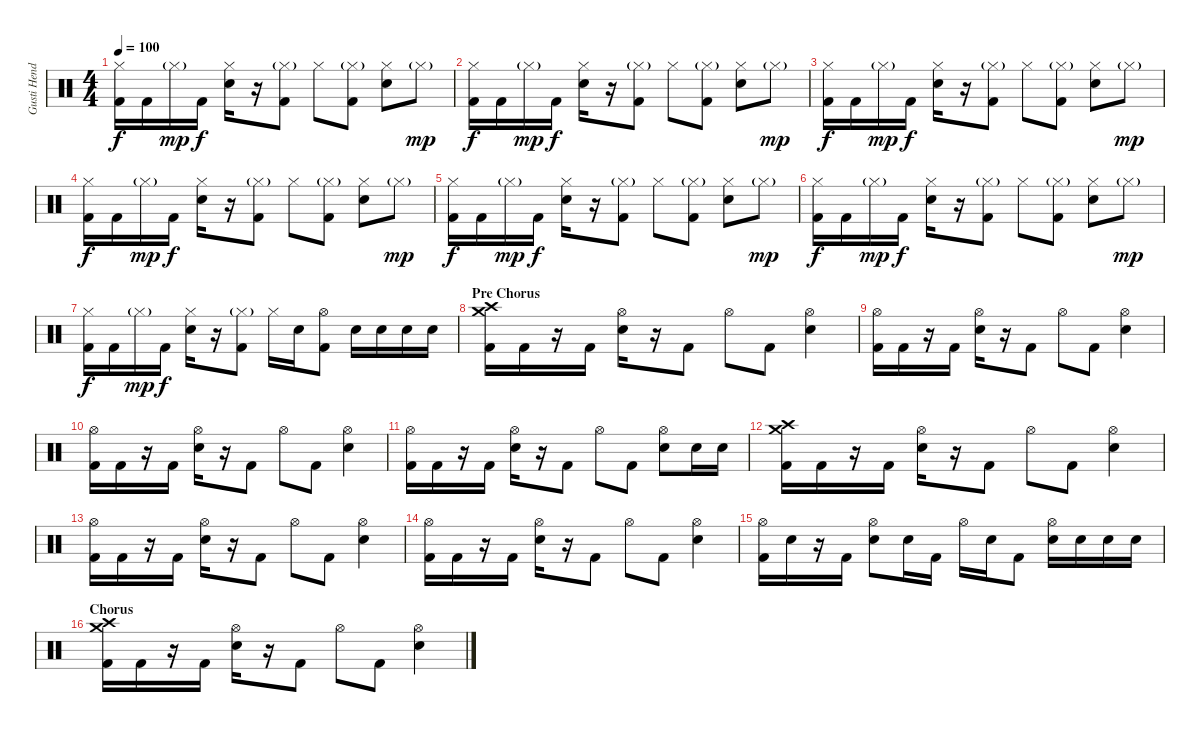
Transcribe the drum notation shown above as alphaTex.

\track ("Gusti Hendy" "Gusti Hend") {instrument percussion}
\staff {score}
\articulation defaults
\ts (4 4)
\tempo 100
\clef neutral
\ks c
("Hi-Hat (closed)" "Kick (hit) 2").16{dy f} "Kick (hit) 2".16 "Hi-Hat (closed)"{g}.16{dy mp} "Kick (hit) 2".16{dy f} ("Hi-Hat (closed)" "Electric Snare (hit)").16 r.16 ("Hi-Hat (closed)"{g} "Kick (hit) 2").8 "Hi-Hat (closed)".8 ("Hi-Hat (closed)"{g} "Kick (hit) 2").8 ("Hi-Hat (closed)" "Electric Snare (hit)").8 "Hi-Hat (closed)"{g}.8{dy mp} |
("Hi-Hat (closed)" "Kick (hit) 2").16{dy f} "Kick (hit) 2".16 "Hi-Hat (closed)"{g}.16{dy mp} "Kick (hit) 2".16{dy f} ("Hi-Hat (closed)" "Electric Snare (hit)").16 r.16 ("Hi-Hat (closed)"{g} "Kick (hit) 2").8 "Hi-Hat (closed)".8 ("Hi-Hat (closed)"{g} "Kick (hit) 2").8 ("Hi-Hat (closed)" "Electric Snare (hit)").8 "Hi-Hat (closed)"{g}.8{dy mp} |
("Hi-Hat (closed)" "Kick (hit) 2").16{dy f} "Kick (hit) 2".16 "Hi-Hat (closed)"{g}.16{dy mp} "Kick (hit) 2".16{dy f} ("Hi-Hat (closed)" "Electric Snare (hit)").16 r.16 ("Hi-Hat (closed)"{g} "Kick (hit) 2").8 "Hi-Hat (closed)".8 ("Hi-Hat (closed)"{g} "Kick (hit) 2").8 ("Hi-Hat (closed)" "Electric Snare (hit)").8 "Hi-Hat (closed)"{g}.8{dy mp} |
("Hi-Hat (closed)" "Kick (hit) 2").16{dy f} "Kick (hit) 2".16 "Hi-Hat (closed)"{g}.16{dy mp} "Kick (hit) 2".16{dy f} ("Hi-Hat (closed)" "Electric Snare (hit)").16 r.16 ("Hi-Hat (closed)"{g} "Kick (hit) 2").8 "Hi-Hat (closed)".8 ("Hi-Hat (closed)"{g} "Kick (hit) 2").8 ("Hi-Hat (closed)" "Electric Snare (hit)").8 "Hi-Hat (closed)"{g}.8{dy mp} |
("Hi-Hat (closed)" "Kick (hit) 2").16{dy f} "Kick (hit) 2".16 "Hi-Hat (closed)"{g}.16{dy mp} "Kick (hit) 2".16{dy f} ("Hi-Hat (closed)" "Electric Snare (hit)").16 r.16 ("Hi-Hat (closed)"{g} "Kick (hit) 2").8 "Hi-Hat (closed)".8 ("Hi-Hat (closed)"{g} "Kick (hit) 2").8 ("Hi-Hat (closed)" "Electric Snare (hit)").8 "Hi-Hat (closed)"{g}.8{dy mp} |
("Hi-Hat (closed)" "Kick (hit) 2").16{dy f} "Kick (hit) 2".16 "Hi-Hat (closed)"{g}.16{dy mp} "Kick (hit) 2".16{dy f} ("Hi-Hat (closed)" "Electric Snare (hit)").16 r.16 ("Hi-Hat (closed)"{g} "Kick (hit) 2").8 "Hi-Hat (closed)".8 ("Hi-Hat (closed)"{g} "Kick (hit) 2").8 ("Hi-Hat (closed)" "Electric Snare (hit)").8 "Hi-Hat (closed)"{g}.8{dy mp} |
("Hi-Hat (closed)" "Kick (hit) 2").16{dy f} "Kick (hit) 2".16 "Hi-Hat (closed)"{g}.16{dy mp} "Kick (hit) 2".16{dy f} ("Hi-Hat (closed)" "Electric Snare (hit)").16 r.16 ("Hi-Hat (closed)"{g} "Kick (hit) 2").8 "Hi-Hat (closed)".16 "Electric Snare (hit)".16 ("Hi-Hat (open)" "Kick (hit) 2").8 "Electric Snare (hit)".16 "Electric Snare (hit)".16 "Electric Snare (hit)".16 "Electric Snare (hit)".16 |
\section ("" "Pre Chorus")
("Crash high (hit)" "Crash medium (hit)" "Kick (hit) 2").16 "Kick (hit) 2".16 r.16 "Kick (hit) 2".16 ("Hi-Hat (open)" "Electric Snare (hit)").16 r.16 "Kick (hit) 2".8 "Hi-Hat (open)".8 "Kick (hit) 2".8 ("Hi-Hat (open)" "Electric Snare (hit)").4 |
("Hi-Hat (open)" "Kick (hit) 2").16 "Kick (hit) 2".16 r.16 "Kick (hit) 2".16 ("Hi-Hat (open)" "Electric Snare (hit)").16 r.16 "Kick (hit) 2".8 "Hi-Hat (open)".8 "Kick (hit) 2".8 ("Hi-Hat (open)" "Electric Snare (hit)").4 |
("Hi-Hat (open)" "Kick (hit) 2").16 "Kick (hit) 2".16 r.16 "Kick (hit) 2".16 ("Hi-Hat (open)" "Electric Snare (hit)").16 r.16 "Kick (hit) 2".8 "Hi-Hat (open)".8 "Kick (hit) 2".8 ("Hi-Hat (open)" "Electric Snare (hit)").4 |
("Hi-Hat (open)" "Kick (hit) 2").16 "Kick (hit) 2".16 r.16 "Kick (hit) 2".16 ("Hi-Hat (open)" "Electric Snare (hit)").16 r.16 "Kick (hit) 2".8 "Hi-Hat (open)".8 "Kick (hit) 2".8 ("Hi-Hat (open)" "Electric Snare (hit)").8 "Electric Snare (hit)".16 "Electric Snare (hit)".16 |
("Crash high (hit)" "Crash medium (hit)" "Kick (hit) 2").16 "Kick (hit) 2".16 r.16 "Kick (hit) 2".16 ("Hi-Hat (open)" "Electric Snare (hit)").16 r.16 "Kick (hit) 2".8 "Hi-Hat (open)".8 "Kick (hit) 2".8 ("Hi-Hat (open)" "Electric Snare (hit)").4 |
("Hi-Hat (open)" "Kick (hit) 2").16 "Kick (hit) 2".16 r.16 "Kick (hit) 2".16 ("Hi-Hat (open)" "Electric Snare (hit)").16 r.16 "Kick (hit) 2".8 "Hi-Hat (open)".8 "Kick (hit) 2".8 ("Hi-Hat (open)" "Electric Snare (hit)").4 |
("Hi-Hat (open)" "Kick (hit) 2").16 "Kick (hit) 2".16 r.16 "Kick (hit) 2".16 ("Hi-Hat (open)" "Electric Snare (hit)").16 r.16 "Kick (hit) 2".8 "Hi-Hat (open)".8 "Kick (hit) 2".8 ("Hi-Hat (open)" "Electric Snare (hit)").4 |
("Hi-Hat (open)" "Kick (hit) 2").16 "Electric Snare (hit)".16 r.16 "Kick (hit) 2".16 ("Hi-Hat (open)" "Electric Snare (hit)").8 "Electric Snare (hit)".16 "Kick (hit) 2".16 "Hi-Hat (open)".16 "Electric Snare (hit)".16 "Kick (hit) 2".8 ("Hi-Hat (open)" "Electric Snare (hit)").16 "Electric Snare (hit)".16 "Electric Snare (hit)".16 "Electric Snare (hit)".16 |
\section ("" "Chorus")
("Crash high (hit)" "Crash medium (hit)" "Kick (hit) 2").16 "Kick (hit) 2".16 r.16 "Kick (hit) 2".16 ("Hi-Hat (open)" "Electric Snare (hit)").16 r.16 "Kick (hit) 2".8 "Hi-Hat (open)".8 "Kick (hit) 2".8 ("Hi-Hat (open)" "Electric Snare (hit)").4
